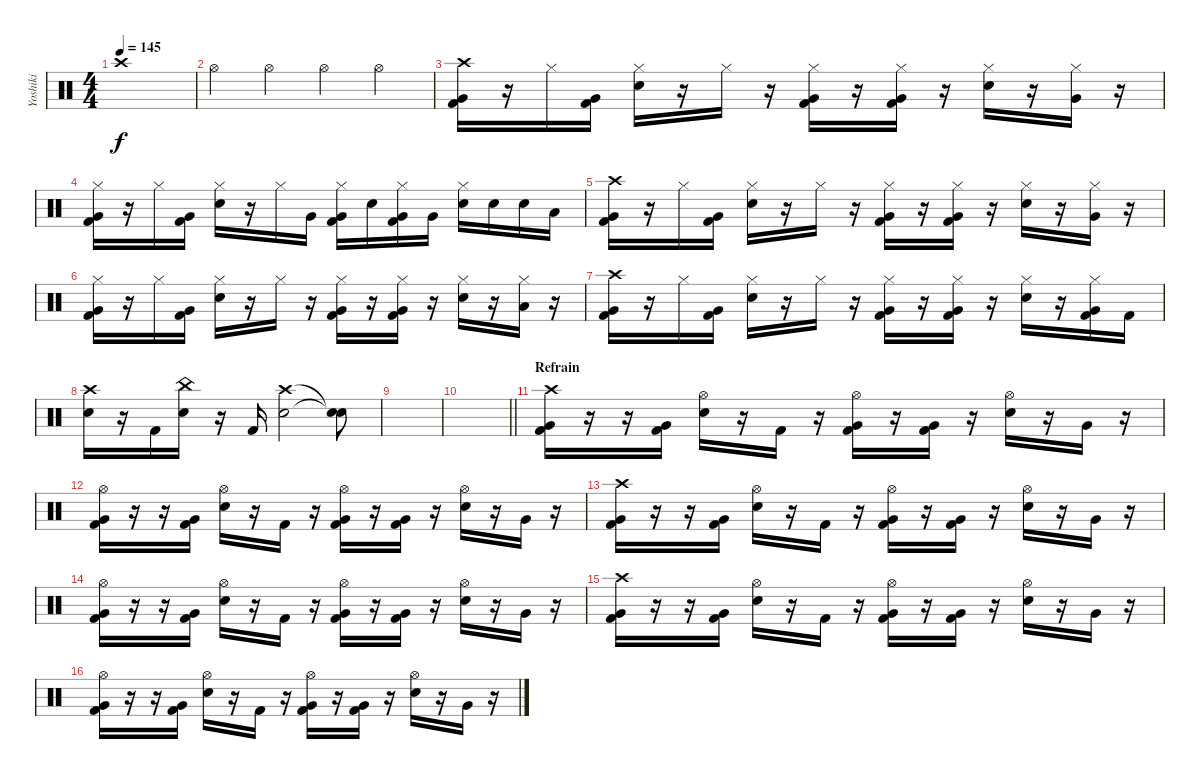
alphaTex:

\track ("Yoshiki" "Yoshiki") {instrument percussion}
\staff {score}
\articulation defaults
\ts (4 4)
\tempo 145
\clef neutral
\ks c "Crash high (hit)".1{dy f}
|
"Hi-Hat (open)".4 "Hi-Hat (open)".4 "Hi-Hat (open)".4 "Hi-Hat (open)".4 |
("Crash high (hit)" "Very Low Tom (hit)" "Kick (hit) 2").16 r.16 "Hi-Hat (closed)".16 ("Very Low Tom (hit)" "Kick (hit) 2").16 ("Hi-Hat (closed)" "Snare (hit) 2").16 r.16 "Hi-Hat (closed)".16 r.16 ("Hi-Hat (closed)" "Very Low Tom (hit)" "Kick (hit) 2").16 r.16 ("Hi-Hat (closed)" "Very Low Tom (hit)" "Kick (hit) 2").16 r.16 ("Hi-Hat (closed)" "Snare (hit) 2").16 r.16 ("Hi-Hat (closed)" "Very Low Tom (hit)").16 r.16 |
("Hi-Hat (closed)" "Very Low Tom (hit)" "Kick (hit) 2").16 r.16 "Hi-Hat (closed)".16 ("Very Low Tom (hit)" "Kick (hit) 2").16 ("Hi-Hat (closed)" "Snare (hit) 2").16 r.16 "Hi-Hat (closed)".16 "Very Low Tom (hit)".16 ("Hi-Hat (closed)" "Very Low Tom (hit)" "Kick (hit) 2").16 "Snare (hit) 2".16 ("Hi-Hat (closed)" "Very Low Tom (hit)" "Kick (hit) 2").16 "Very Low Tom (hit)".16 ("Hi-Hat (closed)" "Snare (hit) 2").16 "Snare (hit) 2".16 "Snare (hit) 2".16 "Low Floor Tom (hit)".16 |
("Crash high (hit)" "Very Low Tom (hit)" "Kick (hit) 2").16 r.16 "Hi-Hat (closed)".16 ("Very Low Tom (hit)" "Kick (hit) 2").16 ("Hi-Hat (closed)" "Snare (hit) 2").16 r.16 "Hi-Hat (closed)".16 r.16 ("Hi-Hat (closed)" "Very Low Tom (hit)" "Kick (hit) 2").16 r.16 ("Hi-Hat (closed)" "Very Low Tom (hit)" "Kick (hit) 2").16 r.16 ("Hi-Hat (closed)" "Snare (hit) 2").16 r.16 ("Hi-Hat (closed)" "Very Low Tom (hit)").16 r.16 |
("Hi-Hat (closed)" "Very Low Tom (hit)" "Kick (hit) 2").16 r.16 "Hi-Hat (closed)".16 ("Very Low Tom (hit)" "Kick (hit) 2").16 ("Hi-Hat (closed)" "Snare (hit) 2").16 r.16 "Hi-Hat (closed)".16 r.16 ("Hi-Hat (closed)" "Very Low Tom (hit)" "Kick (hit) 2").16 r.16 ("Hi-Hat (closed)" "Very Low Tom (hit)" "Kick (hit) 2").16 r.16 ("Hi-Hat (closed)" "Snare (hit) 2").16 r.16 ("Hi-Hat (closed)" "Low Floor Tom (hit)").16 r.16 |
("Crash high (hit)" "Very Low Tom (hit)" "Kick (hit) 2").16 r.16 "Hi-Hat (closed)".16 ("Very Low Tom (hit)" "Kick (hit) 2").16 ("Hi-Hat (closed)" "Snare (hit) 2").16 r.16 "Hi-Hat (closed)".16 r.16 ("Hi-Hat (closed)" "Very Low Tom (hit)" "Kick (hit) 2").16 r.16 ("Hi-Hat (closed)" "Very Low Tom (hit)" "Kick (hit) 2").16 r.16 ("Hi-Hat (closed)" "Snare (hit) 2").16 r.16 ("Hi-Hat (closed)" "Very Low Tom (hit)" "Kick (hit) 2").16 "Kick (hit) 2".16 |
("Crash high (hit)" "Snare (hit) 2").16 r.16 "Kick (hit) 2".16 ("China (hit)" "Snare (hit) 2").16 r.16 "Kick (hit) 2".16 ("Crash high (hit)" "Snare (hit) 2").2 ("Snare (hit)"{t} "Snare (hit)"{t}).8 |
|
\barLineRight lightlight
|
\section ("" "Refrain")
("Crash high (hit)" "Very Low Tom (hit)" "Kick (hit) 2").16 r.16 r.16 ("Very Low Tom (hit)" "Kick (hit) 2").16 ("Hi-Hat (open)" "Snare (hit) 2").16 r.16 "Kick (hit) 2".16 r.16 ("Hi-Hat (open)" "Very Low Tom (hit)" "Kick (hit) 2").16 r.16 ("Very Low Tom (hit)" "Kick (hit) 2").16 r.16 ("Hi-Hat (open)" "Snare (hit) 2").16 r.16 "Very Low Tom (hit)".16 r.16 |
("Hi-Hat (open)" "Very Low Tom (hit)" "Kick (hit) 2").16 r.16 r.16 ("Very Low Tom (hit)" "Kick (hit) 2").16 ("Hi-Hat (open)" "Snare (hit) 2").16 r.16 "Kick (hit) 2".16 r.16 ("Hi-Hat (open)" "Very Low Tom (hit)" "Kick (hit) 2").16 r.16 ("Very Low Tom (hit)" "Kick (hit) 2").16 r.16 ("Hi-Hat (open)" "Snare (hit) 2").16 r.16 "Very Low Tom (hit)".16 r.16 |
("Crash high (hit)" "Very Low Tom (hit)" "Kick (hit) 2").16 r.16 r.16 ("Very Low Tom (hit)" "Kick (hit) 2").16 ("Hi-Hat (open)" "Snare (hit) 2").16 r.16 "Kick (hit) 2".16 r.16 ("Hi-Hat (open)" "Very Low Tom (hit)" "Kick (hit) 2").16 r.16 ("Very Low Tom (hit)" "Kick (hit) 2").16 r.16 ("Hi-Hat (open)" "Snare (hit) 2").16 r.16 "Very Low Tom (hit)".16 r.16 |
("Hi-Hat (open)" "Very Low Tom (hit)" "Kick (hit) 2").16 r.16 r.16 ("Very Low Tom (hit)" "Kick (hit) 2").16 ("Hi-Hat (open)" "Snare (hit) 2").16 r.16 "Kick (hit) 2".16 r.16 ("Hi-Hat (open)" "Very Low Tom (hit)" "Kick (hit) 2").16 r.16 ("Very Low Tom (hit)" "Kick (hit) 2").16 r.16 ("Hi-Hat (open)" "Snare (hit) 2").16 r.16 "Very Low Tom (hit)".16 r.16 |
("Crash high (hit)" "Very Low Tom (hit)" "Kick (hit) 2").16 r.16 r.16 ("Very Low Tom (hit)" "Kick (hit) 2").16 ("Hi-Hat (open)" "Snare (hit) 2").16 r.16 "Kick (hit) 2".16 r.16 ("Hi-Hat (open)" "Very Low Tom (hit)" "Kick (hit) 2").16 r.16 ("Very Low Tom (hit)" "Kick (hit) 2").16 r.16 ("Hi-Hat (open)" "Snare (hit) 2").16 r.16 "Very Low Tom (hit)".16 r.16 |
("Hi-Hat (open)" "Very Low Tom (hit)" "Kick (hit) 2").16 r.16 r.16 ("Very Low Tom (hit)" "Kick (hit) 2").16 ("Hi-Hat (open)" "Snare (hit) 2").16 r.16 "Kick (hit) 2".16 r.16 ("Hi-Hat (open)" "Very Low Tom (hit)" "Kick (hit) 2").16 r.16 ("Very Low Tom (hit)" "Kick (hit) 2").16 r.16 ("Hi-Hat (open)" "Snare (hit) 2").16 r.16 "Very Low Tom (hit)".16 r.16
